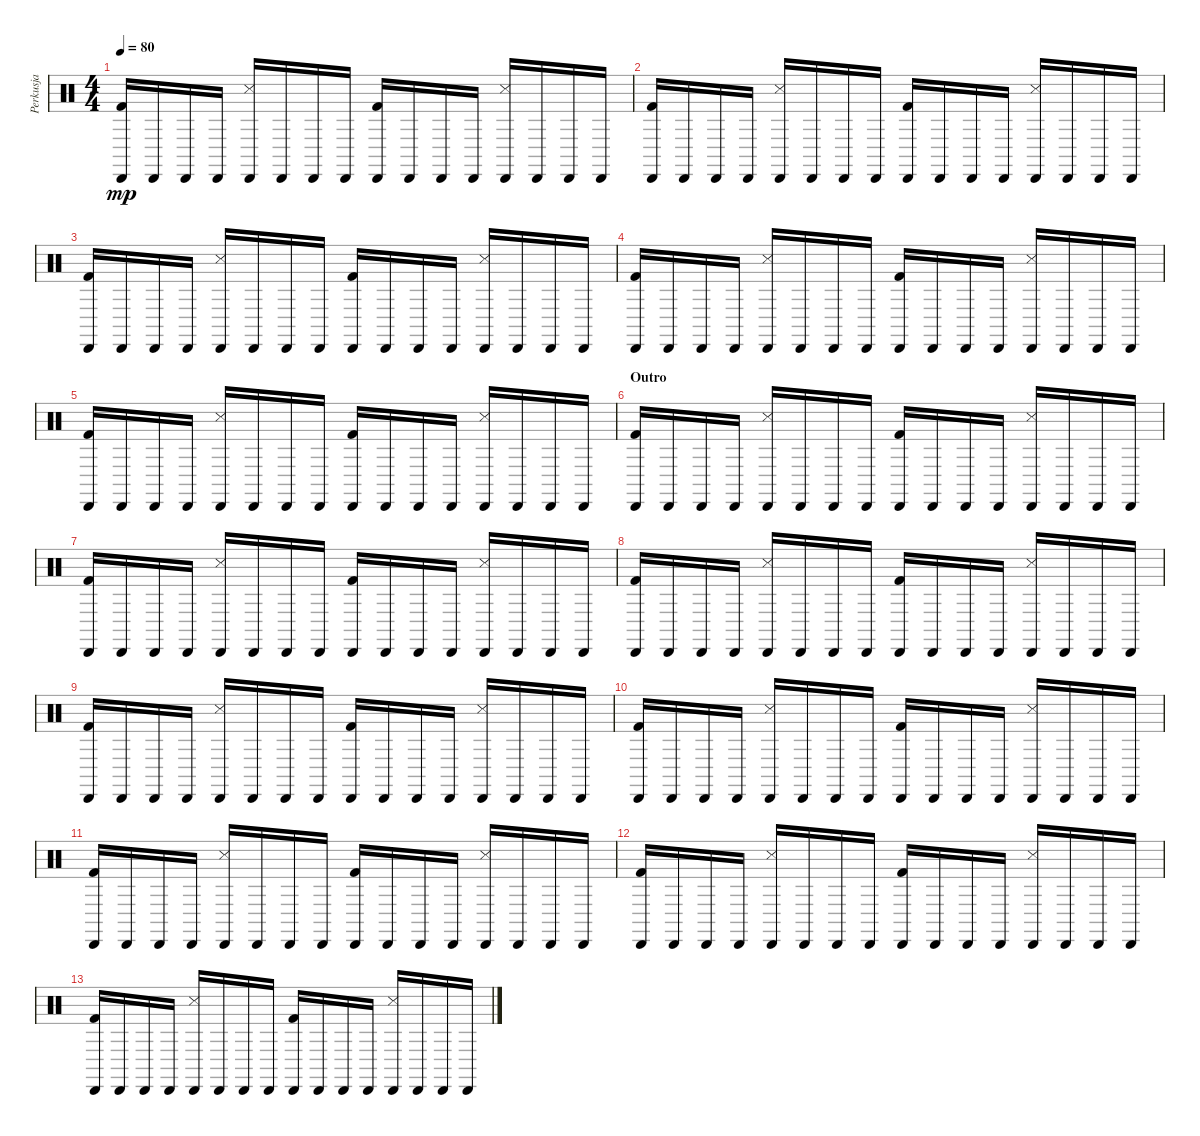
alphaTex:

\track ("Perkusja" "Perkusja") {instrument percussion}
\staff {score}
\articulation defaults
\ts (4 4)
\tempo 80
\clef neutral
\ks c
("Cabasa (hit)" "Kick (hit) 2").16{dy mp} "Cabasa (hit)".16 "Cabasa (hit)".16 "Cabasa (hit)".16 ("Cabasa (hit)" "Snare (side stick) 3").16 "Cabasa (hit)".16 "Cabasa (hit)".16 "Cabasa (hit)".16 ("Cabasa (hit)" "Kick (hit) 2").16 "Cabasa (hit)".16 "Cabasa (hit)".16 "Cabasa (hit)".16 ("Cabasa (hit)" "Snare (side stick) 3").16 "Cabasa (hit)".16 "Cabasa (hit)".16 "Cabasa (hit)".16 |
("Cabasa (hit)" "Kick (hit) 2").16 "Cabasa (hit)".16 "Cabasa (hit)".16 "Cabasa (hit)".16 ("Cabasa (hit)" "Snare (side stick) 3").16 "Cabasa (hit)".16 "Cabasa (hit)".16 "Cabasa (hit)".16 ("Cabasa (hit)" "Kick (hit) 2").16 "Cabasa (hit)".16 "Cabasa (hit)".16 "Cabasa (hit)".16 ("Cabasa (hit)" "Snare (side stick) 3").16 "Cabasa (hit)".16 "Cabasa (hit)".16 "Cabasa (hit)".16 |
("Cabasa (hit)" "Kick (hit) 2").16 "Cabasa (hit)".16 "Cabasa (hit)".16 "Cabasa (hit)".16 ("Cabasa (hit)" "Snare (side stick) 3").16 "Cabasa (hit)".16 "Cabasa (hit)".16 "Cabasa (hit)".16 ("Cabasa (hit)" "Kick (hit) 2").16 "Cabasa (hit)".16 "Cabasa (hit)".16 "Cabasa (hit)".16 ("Cabasa (hit)" "Snare (side stick) 3").16 "Cabasa (hit)".16 "Cabasa (hit)".16 "Cabasa (hit)".16 |
("Cabasa (hit)" "Kick (hit) 2").16 "Cabasa (hit)".16 "Cabasa (hit)".16 "Cabasa (hit)".16 ("Cabasa (hit)" "Snare (side stick) 3").16 "Cabasa (hit)".16 "Cabasa (hit)".16 "Cabasa (hit)".16 ("Cabasa (hit)" "Kick (hit) 2").16 "Cabasa (hit)".16 "Cabasa (hit)".16 "Cabasa (hit)".16 ("Cabasa (hit)" "Snare (side stick) 3").16 "Cabasa (hit)".16 "Cabasa (hit)".16 "Cabasa (hit)".16 |
("Cabasa (hit)" "Kick (hit) 2").16 "Cabasa (hit)".16 "Cabasa (hit)".16 "Cabasa (hit)".16 ("Cabasa (hit)" "Snare (side stick) 3").16 "Cabasa (hit)".16 "Cabasa (hit)".16 "Cabasa (hit)".16 ("Cabasa (hit)" "Kick (hit) 2").16 "Cabasa (hit)".16 "Cabasa (hit)".16 "Cabasa (hit)".16 ("Cabasa (hit)" "Snare (side stick) 3").16 "Cabasa (hit)".16 "Cabasa (hit)".16 "Cabasa (hit)".16 |
\section ("" "Outro")
("Cabasa (hit)" "Kick (hit) 2").16 "Cabasa (hit)".16 "Cabasa (hit)".16 "Cabasa (hit)".16 ("Cabasa (hit)" "Snare (side stick) 3").16 "Cabasa (hit)".16 "Cabasa (hit)".16 "Cabasa (hit)".16 ("Cabasa (hit)" "Kick (hit) 2").16 "Cabasa (hit)".16 "Cabasa (hit)".16 "Cabasa (hit)".16 ("Cabasa (hit)" "Snare (side stick) 3").16 "Cabasa (hit)".16 "Cabasa (hit)".16 "Cabasa (hit)".16 |
("Cabasa (hit)" "Kick (hit) 2").16 "Cabasa (hit)".16 "Cabasa (hit)".16 "Cabasa (hit)".16 ("Cabasa (hit)" "Snare (side stick) 3").16 "Cabasa (hit)".16 "Cabasa (hit)".16 "Cabasa (hit)".16 ("Cabasa (hit)" "Kick (hit) 2").16 "Cabasa (hit)".16 "Cabasa (hit)".16 "Cabasa (hit)".16 ("Cabasa (hit)" "Snare (side stick) 3").16 "Cabasa (hit)".16 "Cabasa (hit)".16 "Cabasa (hit)".16 |
("Cabasa (hit)" "Kick (hit) 2").16 "Cabasa (hit)".16 "Cabasa (hit)".16 "Cabasa (hit)".16 ("Cabasa (hit)" "Snare (side stick) 3").16 "Cabasa (hit)".16 "Cabasa (hit)".16 "Cabasa (hit)".16 ("Cabasa (hit)" "Kick (hit) 2").16 "Cabasa (hit)".16 "Cabasa (hit)".16 "Cabasa (hit)".16 ("Cabasa (hit)" "Snare (side stick) 3").16 "Cabasa (hit)".16 "Cabasa (hit)".16 "Cabasa (hit)".16 |
("Cabasa (hit)" "Kick (hit) 2").16 "Cabasa (hit)".16 "Cabasa (hit)".16 "Cabasa (hit)".16 ("Cabasa (hit)" "Snare (side stick) 3").16 "Cabasa (hit)".16 "Cabasa (hit)".16 "Cabasa (hit)".16 ("Cabasa (hit)" "Kick (hit) 2").16 "Cabasa (hit)".16 "Cabasa (hit)".16 "Cabasa (hit)".16 ("Cabasa (hit)" "Snare (side stick) 3").16 "Cabasa (hit)".16 "Cabasa (hit)".16 "Cabasa (hit)".16 |
("Cabasa (hit)" "Kick (hit) 2").16 "Cabasa (hit)".16 "Cabasa (hit)".16 "Cabasa (hit)".16 ("Cabasa (hit)" "Snare (side stick) 3").16 "Cabasa (hit)".16 "Cabasa (hit)".16 "Cabasa (hit)".16 ("Cabasa (hit)" "Kick (hit) 2").16 "Cabasa (hit)".16 "Cabasa (hit)".16 "Cabasa (hit)".16 ("Cabasa (hit)" "Snare (side stick) 3").16 "Cabasa (hit)".16 "Cabasa (hit)".16 "Cabasa (hit)".16 |
("Cabasa (hit)" "Kick (hit) 2").16 "Cabasa (hit)".16 "Cabasa (hit)".16 "Cabasa (hit)".16 ("Cabasa (hit)" "Snare (side stick) 3").16 "Cabasa (hit)".16 "Cabasa (hit)".16 "Cabasa (hit)".16 ("Cabasa (hit)" "Kick (hit) 2").16 "Cabasa (hit)".16 "Cabasa (hit)".16 "Cabasa (hit)".16 ("Cabasa (hit)" "Snare (side stick) 3").16 "Cabasa (hit)".16 "Cabasa (hit)".16 "Cabasa (hit)".16 |
("Cabasa (hit)" "Kick (hit) 2").16 "Cabasa (hit)".16 "Cabasa (hit)".16 "Cabasa (hit)".16 ("Cabasa (hit)" "Snare (side stick) 3").16 "Cabasa (hit)".16 "Cabasa (hit)".16 "Cabasa (hit)".16 ("Cabasa (hit)" "Kick (hit) 2").16 "Cabasa (hit)".16 "Cabasa (hit)".16 "Cabasa (hit)".16 ("Cabasa (hit)" "Snare (side stick) 3").16 "Cabasa (hit)".16 "Cabasa (hit)".16 "Cabasa (hit)".16 |
("Cabasa (hit)" "Kick (hit) 2").16 "Cabasa (hit)".16 "Cabasa (hit)".16 "Cabasa (hit)".16 ("Cabasa (hit)" "Snare (side stick) 3").16 "Cabasa (hit)".16 "Cabasa (hit)".16 "Cabasa (hit)".16 ("Cabasa (hit)" "Kick (hit) 2").16 "Cabasa (hit)".16 "Cabasa (hit)".16 "Cabasa (hit)".16 ("Cabasa (hit)" "Snare (side stick) 3").16 "Cabasa (hit)".16 "Cabasa (hit)".16 "Cabasa (hit)".16
